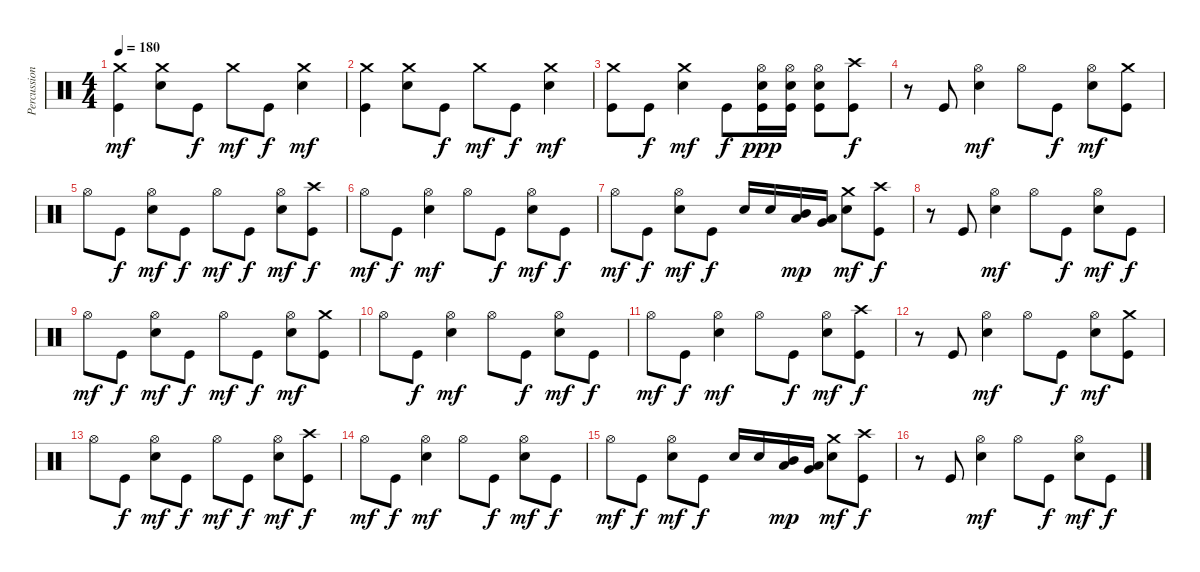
\track ("Percussions" "Percussion") {instrument percussion}
\staff {score}
\articulation defaults
\ts (4 4)
\tempo 180
\clef neutral
\ks c
("Kick (hit)" "Crash medium (hit)").4{dy mf} ("Electric Snare (hit)" "Crash medium (hit)").8 "Kick (hit)".8{dy f} "Crash medium (hit)".8{dy mf} "Kick (hit)".8{dy f} ("Electric Snare (hit)" "Crash medium (hit)").4{dy mf} |
("Kick (hit)" "Crash medium (hit)").4 ("Electric Snare (hit)" "Crash medium (hit)").8 "Kick (hit)".8{dy f} "Crash medium (hit)".8{dy mf} "Kick (hit)".8{dy f} ("Electric Snare (hit)" "Crash medium (hit)").4{dy mf} |
("Kick (hit)" "Crash medium (hit)").8 "Kick (hit)".8{dy f} ("Electric Snare (hit)" "Crash medium (hit)").4{dy mf} "Kick (hit)".8{dy f} ("Kick (hit)" "Electric Snare (hit)" "Hi-Hat (open)").16{dy ppp} ("Kick (hit)" "Electric Snare (hit)" "Hi-Hat (open)").16 ("Kick (hit)" "Electric Snare (hit)" "Hi-Hat (open)").8 ("Kick (hit)" "Crash high (hit)").8{dy f} |
r.8 "Kick (hit)".8 ("Electric Snare (hit)" "Hi-Hat (open)").4{dy mf} "Hi-Hat (open)".8 "Kick (hit)".8{dy f} ("Electric Snare (hit)" "Hi-Hat (open)").8{dy mf} ("Kick (hit)" "Crash medium (hit)").8 |
"Hi-Hat (open)".8 "Kick (hit)".8{dy f} ("Electric Snare (hit)" "Hi-Hat (open)").8{dy mf} "Kick (hit)".8{dy f} "Hi-Hat (open)".8{dy mf} "Kick (hit)".8{dy f} ("Electric Snare (hit)" "Hi-Hat (open)").8{dy mf} ("Kick (hit)" "Crash high (hit)").8{dy f} |
"Hi-Hat (open)".8{dy mf} "Kick (hit)".8{dy f} ("Electric Snare (hit)" "Hi-Hat (open)").4{dy mf} "Hi-Hat (open)".8 "Kick (hit)".8{dy f} ("Electric Snare (hit)" "Hi-Hat (open)").8{dy mf} "Kick (hit)".8{dy f} |
"Hi-Hat (open)".8{dy mf} "Kick (hit)".8{dy f} ("Electric Snare (hit)" "Hi-Hat (open)").8{dy mf} "Kick (hit)".8{dy f} "Electric Snare (hit)".16 "Electric Snare (hit)".16 ("Low Tom (hit)" "Mid Tom (hit)").16{dy mp} ("Very Low Tom (hit)" "Low Tom (hit)").16 ("Electric Snare (hit)" "Crash medium (hit)").8{dy mf} ("Kick (hit)" "Crash high (hit)").8{dy f} |
r.8 "Kick (hit)".8 ("Electric Snare (hit)" "Hi-Hat (open)").4{dy mf} "Hi-Hat (open)".8 "Kick (hit)".8{dy f} ("Electric Snare (hit)" "Hi-Hat (open)").8{dy mf} "Kick (hit)".8{dy f} |
"Hi-Hat (open)".8{dy mf} "Kick (hit)".8{dy f} ("Electric Snare (hit)" "Hi-Hat (open)").8{dy mf} "Kick (hit)".8{dy f} "Hi-Hat (open)".8{dy mf} "Kick (hit)".8{dy f} ("Electric Snare (hit)" "Hi-Hat (open)").8{dy mf} ("Kick (hit)" "Crash medium (hit)").8 |
"Hi-Hat (open)".8 "Kick (hit)".8{dy f} ("Electric Snare (hit)" "Hi-Hat (open)").4{dy mf} "Hi-Hat (open)".8 "Kick (hit)".8{dy f} ("Electric Snare (hit)" "Hi-Hat (open)").8{dy mf} "Kick (hit)".8{dy f} |
"Hi-Hat (open)".8{dy mf} "Kick (hit)".8{dy f} ("Electric Snare (hit)" "Hi-Hat (open)").4{dy mf} "Hi-Hat (open)".8 "Kick (hit)".8{dy f} ("Electric Snare (hit)" "Hi-Hat (open)").8{dy mf} ("Kick (hit)" "Crash high (hit)").8{dy f} |
r.8 "Kick (hit)".8 ("Electric Snare (hit)" "Hi-Hat (open)").4{dy mf} "Hi-Hat (open)".8 "Kick (hit)".8{dy f} ("Electric Snare (hit)" "Hi-Hat (open)").8{dy mf} ("Kick (hit)" "Crash medium (hit)").8 |
"Hi-Hat (open)".8 "Kick (hit)".8{dy f} ("Electric Snare (hit)" "Hi-Hat (open)").8{dy mf} "Kick (hit)".8{dy f} "Hi-Hat (open)".8{dy mf} "Kick (hit)".8{dy f} ("Electric Snare (hit)" "Hi-Hat (open)").8{dy mf} ("Kick (hit)" "Crash high (hit)").8{dy f} |
"Hi-Hat (open)".8{dy mf} "Kick (hit)".8{dy f} ("Electric Snare (hit)" "Hi-Hat (open)").4{dy mf} "Hi-Hat (open)".8 "Kick (hit)".8{dy f} ("Electric Snare (hit)" "Hi-Hat (open)").8{dy mf} "Kick (hit)".8{dy f} |
"Hi-Hat (open)".8{dy mf} "Kick (hit)".8{dy f} ("Electric Snare (hit)" "Hi-Hat (open)").8{dy mf} "Kick (hit)".8{dy f} "Electric Snare (hit)".16 "Electric Snare (hit)".16 ("Low Tom (hit)" "Mid Tom (hit)").16{dy mp} ("Very Low Tom (hit)" "Low Tom (hit)").16 ("Electric Snare (hit)" "Crash medium (hit)").8{dy mf} ("Kick (hit)" "Crash high (hit)").8{dy f} |
r.8 "Kick (hit)".8 ("Electric Snare (hit)" "Hi-Hat (open)").4{dy mf} "Hi-Hat (open)".8 "Kick (hit)".8{dy f} ("Electric Snare (hit)" "Hi-Hat (open)").8{dy mf} "Kick (hit)".8{dy f}
